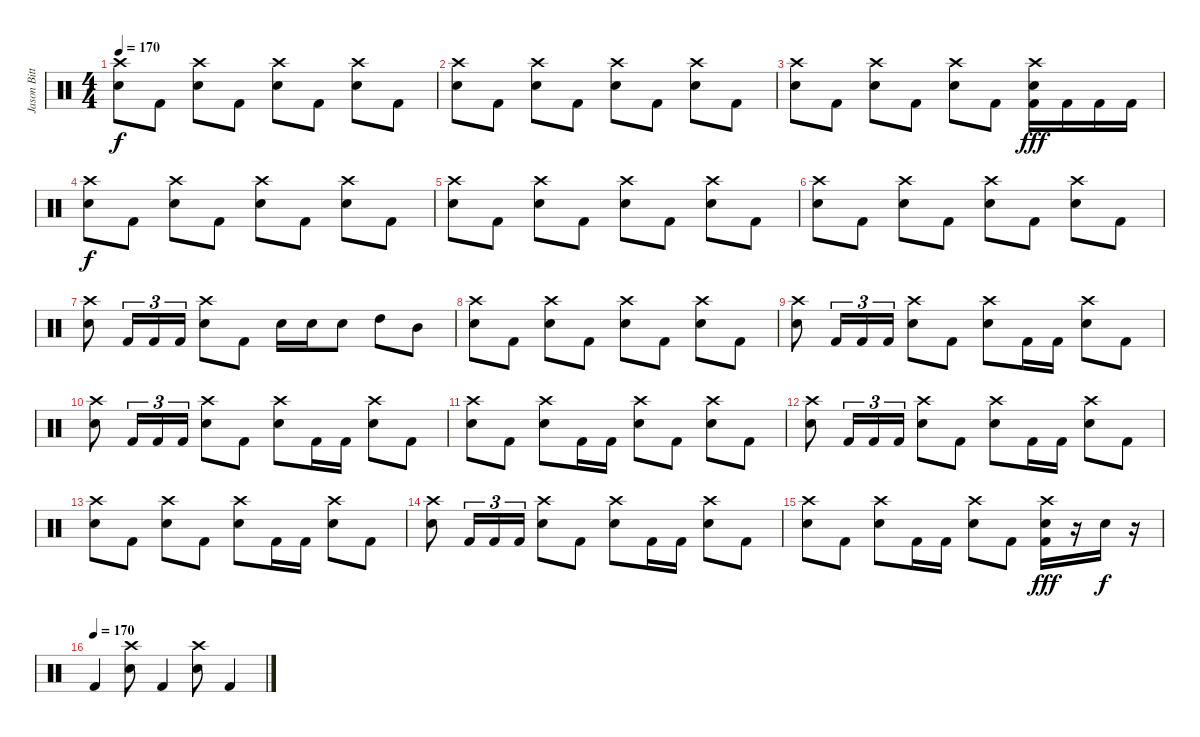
\track ("Jason Bittner" "Jason Bitt") {instrument percussion}
\staff {score}
\articulation defaults
\ts (4 4)
\tempo 170
\clef neutral
\ks c
("Crash high (hit)" "Electric Snare (hit)").8{dy f} "Kick (hit) 2".8 ("Crash high (hit)" "Electric Snare (hit)").8 "Kick (hit) 2".8 ("Crash high (hit)" "Electric Snare (hit)").8 "Kick (hit) 2".8 ("Crash high (hit)" "Electric Snare (hit)").8 "Kick (hit) 2".8 |
("Crash high (hit)" "Electric Snare (hit)").8 "Kick (hit) 2".8 ("Crash high (hit)" "Electric Snare (hit)").8 "Kick (hit) 2".8 ("Crash high (hit)" "Electric Snare (hit)").8 "Kick (hit) 2".8 ("Crash high (hit)" "Electric Snare (hit)").8 "Kick (hit) 2".8 |
("Crash high (hit)" "Electric Snare (hit)").8 "Kick (hit) 2".8 ("Crash high (hit)" "Electric Snare (hit)").8 "Kick (hit) 2".8 ("Crash high (hit)" "Electric Snare (hit)").8 "Kick (hit) 2".8 ("Crash high (hit)" "Electric Snare (hit)" "Kick (hit) 2").16{dy fff} "Kick (hit) 2".16 "Kick (hit) 2".16 "Kick (hit) 2".16 |
("Crash high (hit)" "Electric Snare (hit)").8{dy f} "Kick (hit) 2".8 ("Crash high (hit)" "Electric Snare (hit)").8 "Kick (hit) 2".8 ("Crash high (hit)" "Electric Snare (hit)").8 "Kick (hit) 2".8 ("Crash high (hit)" "Electric Snare (hit)").8 "Kick (hit) 2".8 |
("Crash high (hit)" "Electric Snare (hit)").8 "Kick (hit) 2".8 ("Crash high (hit)" "Electric Snare (hit)").8 "Kick (hit) 2".8 ("Crash high (hit)" "Electric Snare (hit)").8 "Kick (hit) 2".8 ("Crash high (hit)" "Electric Snare (hit)").8 "Kick (hit) 2".8 |
("Crash high (hit)" "Electric Snare (hit)").8 "Kick (hit) 2".8 ("Crash high (hit)" "Electric Snare (hit)").8 "Kick (hit) 2".8 ("Crash high (hit)" "Electric Snare (hit)").8 "Kick (hit) 2".8 ("Crash high (hit)" "Electric Snare (hit)").8 "Kick (hit) 2".8 |
("Crash high (hit)" "Electric Snare (hit)").8 "Kick (hit) 2".16{tu (3 2)} "Kick (hit) 2".16{tu (3 2)} "Kick (hit) 2".16{tu (3 2)} ("Crash high (hit)" "Electric Snare (hit)").8 "Kick (hit) 2".8 "Electric Snare (hit)".16 "Electric Snare (hit)".16 "Electric Snare (hit)".8 "High Tom (hit)".8 "Mid Tom (hit)".8 |
("Crash high (hit)" "Electric Snare (hit)").8 "Kick (hit) 2".8 ("Crash high (hit)" "Electric Snare (hit)").8 "Kick (hit) 2".8 ("Crash high (hit)" "Electric Snare (hit)").8 "Kick (hit) 2".8 ("Crash high (hit)" "Electric Snare (hit)").8 "Kick (hit) 2".8 |
("Crash high (hit)" "Electric Snare (hit)").8 "Kick (hit) 2".16{tu (3 2)} "Kick (hit) 2".16{tu (3 2)} "Kick (hit) 2".16{tu (3 2)} ("Crash high (hit)" "Electric Snare (hit)").8 "Kick (hit) 2".8 ("Crash high (hit)" "Electric Snare (hit)").8 "Kick (hit) 2".16 "Kick (hit) 2".16 ("Crash high (hit)" "Electric Snare (hit)").8 "Kick (hit) 2".8 |
("Crash high (hit)" "Electric Snare (hit)").8 "Kick (hit) 2".16{tu (3 2)} "Kick (hit) 2".16{tu (3 2)} "Kick (hit) 2".16{tu (3 2)} ("Crash high (hit)" "Electric Snare (hit)").8 "Kick (hit) 2".8 ("Crash high (hit)" "Electric Snare (hit)").8 "Kick (hit) 2".16 "Kick (hit) 2".16 ("Crash high (hit)" "Electric Snare (hit)").8 "Kick (hit) 2".8 |
("Crash high (hit)" "Electric Snare (hit)").8 "Kick (hit) 2".8 ("Crash high (hit)" "Electric Snare (hit)").8 "Kick (hit) 2".16 "Kick (hit) 2".16 ("Crash high (hit)" "Electric Snare (hit)").8 "Kick (hit) 2".8 ("Crash high (hit)" "Electric Snare (hit)").8 "Kick (hit) 2".8 |
("Crash high (hit)" "Electric Snare (hit)").8 "Kick (hit) 2".16{tu (3 2)} "Kick (hit) 2".16{tu (3 2)} "Kick (hit) 2".16{tu (3 2)} ("Crash high (hit)" "Electric Snare (hit)").8 "Kick (hit) 2".8 ("Crash high (hit)" "Electric Snare (hit)").8 "Kick (hit) 2".16 "Kick (hit) 2".16 ("Crash high (hit)" "Electric Snare (hit)").8 "Kick (hit) 2".8 |
("Crash high (hit)" "Electric Snare (hit)").8 "Kick (hit) 2".8 ("Crash high (hit)" "Electric Snare (hit)").8 "Kick (hit) 2".8 ("Crash high (hit)" "Electric Snare (hit)").8 "Kick (hit) 2".16 "Kick (hit) 2".16 ("Crash high (hit)" "Electric Snare (hit)").8 "Kick (hit) 2".8 |
("Crash high (hit)" "Electric Snare (hit)").8 "Kick (hit) 2".16{tu (3 2)} "Kick (hit) 2".16{tu (3 2)} "Kick (hit) 2".16{tu (3 2)} ("Crash high (hit)" "Electric Snare (hit)").8 "Kick (hit) 2".8 ("Crash high (hit)" "Electric Snare (hit)").8 "Kick (hit) 2".16 "Kick (hit) 2".16 ("Crash high (hit)" "Electric Snare (hit)").8 "Kick (hit) 2".8 |
("Crash high (hit)" "Electric Snare (hit)").8 "Kick (hit) 2".8 ("Crash high (hit)" "Electric Snare (hit)").8 "Kick (hit) 2".16 "Kick (hit) 2".16 ("Crash high (hit)" "Electric Snare (hit)").8 "Kick (hit) 2".8 ("Crash high (hit)" "Electric Snare (hit)" "Kick (hit) 2").16{dy fff} r.16 "Electric Snare (hit)".16{dy f} r.16 |
\tempo (170)
"Kick (hit) 2".4 ("Crash high (hit)" "Electric Snare (hit)").8 "Kick (hit) 2".4 ("Crash high (hit)" "Electric Snare (hit)").8 "Kick (hit) 2".4
